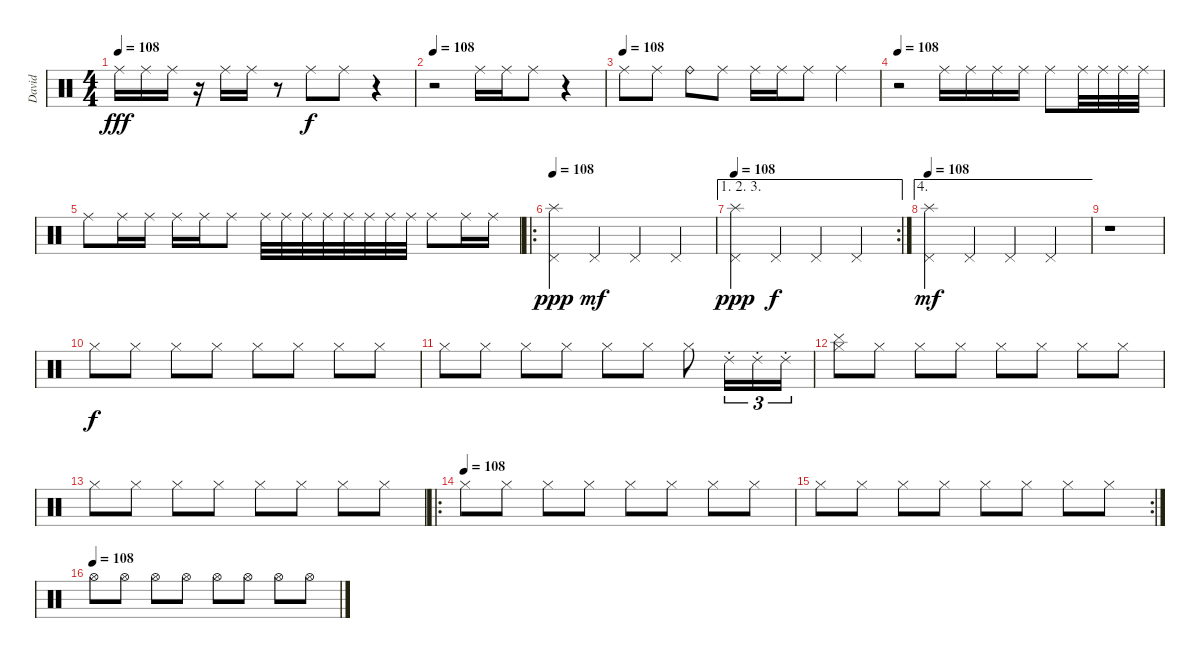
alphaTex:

\track ("David" "David") {instrument percussion}
\staff {score}
\articulation defaults
\ts (4 4)
\tempo 108
\clef neutral
\ks c "Ride (middle)".16{dy fff} "Ride (middle)".16 "Ride (middle)".16
r.16 "Ride (middle)".16 "Ride (middle)".16 r.8 "Ride (middle)".8{dy f} "Ride (middle)".8 r.4 |
\tempo 108
r.2 "Ride (middle)".16 "Ride (middle)".16 "Ride (middle)".8 r.4 |
\tempo (108)
"Ride (middle)".8 "Ride (middle)".8 "Ride (bell)".8 "Ride (middle)".8 "Ride (middle)".16 "Ride (middle)".16 "Ride (middle)".8 "Ride (middle)".4 |
\tempo 108
r.2 "Ride (middle)".16 "Ride (middle)".16 "Ride (middle)".16 "Ride (middle)".16 "Ride (middle)".8 "Ride (middle)".32 "Ride (middle)".32 "Ride (middle)".32 "Ride (middle)".32 |
"Ride (middle)".8 "Ride (middle)".16 "Ride (middle)".16 "Ride (middle)".16 "Ride (middle)".16 "Ride (middle)".8 "Ride (middle)".32 "Ride (middle)".32 "Ride (middle)".32 "Ride (middle)".32 "Ride (middle)".32 "Ride (middle)".32 "Ride (middle)".32 "Ride (middle)".32 "Ride (middle)".8 "Ride (middle)".16 "Ride (middle)".16 |
\ro
\tempo 108
("Splash (hit)" "Pedal Hi-Hat (hit)").4{dy ppp} "Pedal Hi-Hat (hit)".4{dy mf} "Pedal Hi-Hat (hit)".4 "Pedal Hi-Hat (hit)".4 |
\ae (1 2 3)
\rc 2
\tempo 108
("Splash (hit)" "Pedal Hi-Hat (hit)").4{dy ppp} "Pedal Hi-Hat (hit)".4{dy f} "Pedal Hi-Hat (hit)".4 "Pedal Hi-Hat (hit)".4 |
\ae 4
\tempo 108
("Splash (hit)" "Pedal Hi-Hat (hit)").4{dy mf} "Pedal Hi-Hat (hit)".4 "Pedal Hi-Hat (hit)".4 "Pedal Hi-Hat (hit)".4 |
r.1 |
"Hi-Hat (closed)".8{dy f} "Hi-Hat (closed)".8 "Hi-Hat (closed)".8 "Hi-Hat (closed)".8 "Hi-Hat (closed)".8 "Hi-Hat (closed)".8 "Hi-Hat (closed)".8 "Hi-Hat (closed)".8 |
"Hi-Hat (closed)".8 "Hi-Hat (closed)".8 "Hi-Hat (closed)".8 "Hi-Hat (closed)".8 "Hi-Hat (closed)".8 "Hi-Hat (closed)".8 "Hi-Hat (closed)".8 "Ride (choke) 2".16{tu (3 2)} "Ride (choke) 2".16{tu (3 2)} "Ride (choke) 2".16{tu (3 2)} |
("Cymbal (hit)" "Hi-Hat (closed)").8 "Hi-Hat (closed)".8 "Hi-Hat (closed)".8 "Hi-Hat (closed)".8 "Hi-Hat (closed)".8 "Hi-Hat (closed)".8 "Hi-Hat (closed)".8 "Hi-Hat (closed)".8 |
"Hi-Hat (closed)".8 "Hi-Hat (closed)".8 "Hi-Hat (closed)".8 "Hi-Hat (closed)".8 "Hi-Hat (closed)".8 "Hi-Hat (closed)".8 "Hi-Hat (closed)".8 "Hi-Hat (closed)".8 |
\ro
\tempo (108)
"Hi-Hat (closed)".8 "Hi-Hat (closed)".8 "Hi-Hat (closed)".8 "Hi-Hat (closed)".8 "Hi-Hat (closed)".8 "Hi-Hat (closed)".8 "Hi-Hat (closed)".8 "Hi-Hat (closed)".8 |
\rc 2 "Hi-Hat (closed)".8 "Hi-Hat (closed)".8 "Hi-Hat (closed)".8 "Hi-Hat (closed)".8 "Hi-Hat (closed)".8 "Hi-Hat (closed)".8 "Hi-Hat (closed)".8 "Hi-Hat (closed)".8
|
\tempo (108)
"Hi-Hat (open)".8 "Hi-Hat (open)".8 "Hi-Hat (open)".8 "Hi-Hat (open)".8 "Hi-Hat (open)".8 "Hi-Hat (open)".8 "Hi-Hat (open)".8 "Hi-Hat (open)".8
